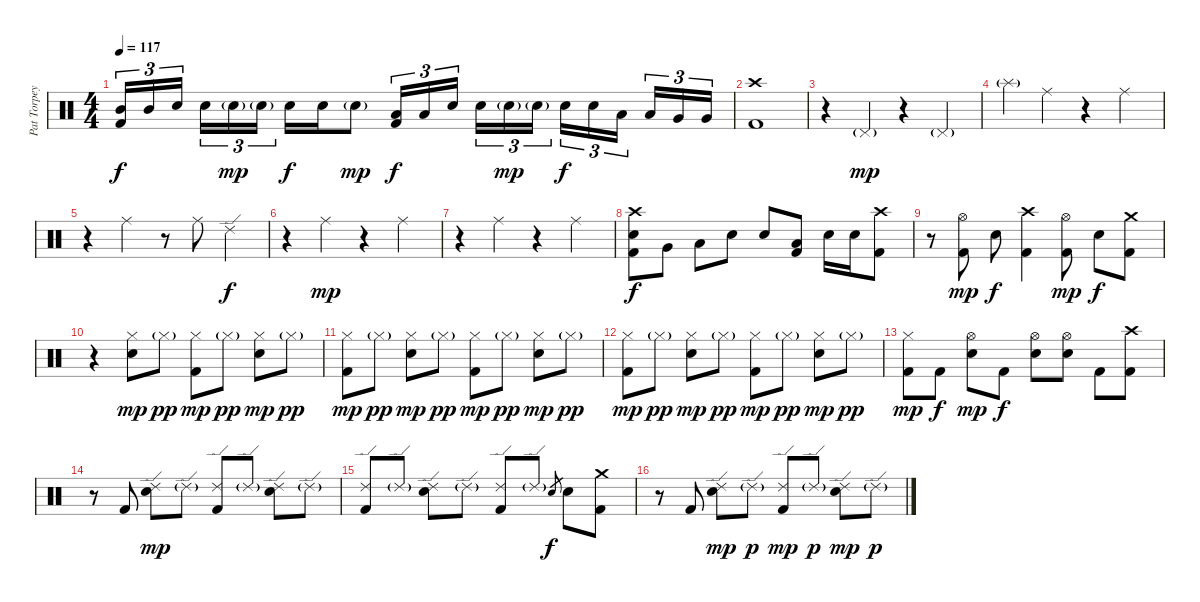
\track ("Pat Torpey" "Pat Torpey") {instrument percussion}
\staff {score}
\articulation defaults
\ts (4 4)
\tempo 117
\clef neutral
\ks c
("Mid Tom (hit)" "Kick (hit) 2").16{tu (3 2) dy f} "Mid Tom (hit)".16{tu (3 2)} "Electric Snare (hit)".16{tu (3 2) beam splitsecondary} "Electric Snare (hit)".16{tu (3 2)} "Electric Snare (hit)"{g}.16{tu (3 2) dy mp} "Electric Snare (hit)"{g}.16{tu (3 2)} "Electric Snare (hit)".16{dy f} "Electric Snare (hit)".16 "Electric Snare (hit)"{g}.8{dy mp} ("Low Tom (hit)" "Kick (hit) 2").16{tu (3 2) dy f} "Low Tom (hit)".16{tu (3 2)} "Electric Snare (hit)".16{tu (3 2) beam splitsecondary} "Electric Snare (hit)".16{tu (3 2)} "Electric Snare (hit)"{g}.16{tu (3 2) dy mp} "Electric Snare (hit)"{g}.16{tu (3 2)} "Electric Snare (hit)".16{tu (3 2) dy f} "Electric Snare (hit)".16{tu (3 2)} "Low Tom (hit)".16{tu (3 2) beam splitsecondary} "Low Tom (hit)".16{tu (3 2)} "Very Low Tom (hit)".16{tu (3 2)} "Very Low Tom (hit)".16{tu (3 2)} |
("Crash high (hit)" "Kick (hit) 2").1 |
r.4 "Pedal Hi-Hat (hit)"{g}.4{dy mp} r.4 "Pedal Hi-Hat (hit)"{g}.4 |
"Splash (hit)"{g}.4 "Ride (middle)".4 r.4 "Ride (middle)".4 |
r.4 "Ride (middle)".4 r.8 "Ride (middle)".8 "Ride (edge) 2".4{dy f} |
r.4 "Ride (middle)".4{dy mp} r.4 "Ride (middle)".4 |
r.4 "Ride (middle)".4 r.4 "Ride (middle)".4 |
("Crash high (hit)" "Electric Snare (hit)" "Kick (hit) 2").8{dy f} "Very Low Tom (hit)".8 "Low Floor Tom (hit)".8 "Electric Snare (hit)".8 "Electric Snare (hit)".8 ("Low Floor Tom (hit)" "Kick (hit) 2").8 "Electric Snare (hit)".16 "Electric Snare (hit)".16 ("Crash high (hit)" "Kick (hit) 2").8 |
r.8 ("Hi-Hat (open)" "Kick (hit) 2").8{dy mp} "Electric Snare (hit)".8{dy f} ("Crash high (hit)" "Kick (hit) 2").4 ("Hi-Hat (open)" "Kick (hit) 2").8{dy mp} "Electric Snare (hit)".8{dy f} ("Crash medium (hit)" "Kick (hit) 2").8 |
r.4 ("Hi-Hat (closed)" "Electric Snare (hit)").8{dy mp} "Hi-Hat (closed)"{g}.8{dy pp} ("Hi-Hat (closed)" "Kick (hit) 2").8{dy mp} "Hi-Hat (closed)"{g}.8{dy pp} ("Hi-Hat (closed)" "Electric Snare (hit)").8{dy mp} "Hi-Hat (closed)"{g}.8{dy pp} |
("Hi-Hat (closed)" "Kick (hit) 2").8{dy mp} "Hi-Hat (closed)"{g}.8{dy pp} ("Hi-Hat (closed)" "Electric Snare (hit)").8{dy mp} "Hi-Hat (closed)"{g}.8{dy pp} ("Hi-Hat (closed)" "Kick (hit) 2").8{dy mp} "Hi-Hat (closed)"{g}.8{dy pp} ("Hi-Hat (closed)" "Electric Snare (hit)").8{dy mp} "Hi-Hat (closed)"{g}.8{dy pp} |
("Hi-Hat (closed)" "Kick (hit) 2").8{dy mp} "Hi-Hat (closed)"{g}.8{dy pp} ("Hi-Hat (closed)" "Electric Snare (hit)").8{dy mp} "Hi-Hat (closed)"{g}.8{dy pp} ("Hi-Hat (closed)" "Kick (hit) 2").8{dy mp} "Hi-Hat (closed)"{g}.8{dy pp} ("Hi-Hat (closed)" "Electric Snare (hit)").8{dy mp} "Hi-Hat (closed)"{g}.8{dy pp} |
("Hi-Hat (closed)" "Kick (hit) 2").8{dy mp} "Kick (hit) 2".8{dy f} ("Hi-Hat (open)" "Electric Snare (hit)").8{dy mp} "Kick (hit) 2".8{dy f} ("Hi-Hat (open)" "Electric Snare (hit)").8 ("Hi-Hat (open)" "Electric Snare (hit)").8 "Kick (hit) 2".8 ("Crash high (hit)" "Kick (hit) 2").8 |
r.8 "Kick (hit) 2".8 ("Ride (edge) 2" "Electric Snare (hit)").8{dy mp} "Ride (edge) 2"{g}.8 ("Ride (edge) 2" "Kick (hit) 2").8 "Ride (edge) 2"{g}.8 ("Ride (edge) 2" "Electric Snare (hit)").8 "Ride (edge) 2"{g}.8 |
("Ride (edge) 2" "Kick (hit) 2").8 "Ride (edge) 2"{g}.8 ("Ride (edge) 2" "Electric Snare (hit)").8 "Ride (edge) 2"{g}.8 ("Ride (edge) 2" "Kick (hit) 2").8 "Ride (edge) 2"{g}.8 "Electric Snare (hit)"{h}.8{gr dy f} "Electric Snare (hit)".8 ("Crash medium (hit)" "Kick (hit) 2").8 |
r.8 "Kick (hit) 2".8 ("Ride (edge) 2" "Electric Snare (hit)").8{dy mp} "Ride (edge) 2"{g}.8{dy p} ("Ride (edge) 2" "Kick (hit) 2").8{dy mp} "Ride (edge) 2"{g}.8{dy p} ("Ride (edge) 2" "Electric Snare (hit)").8{dy mp} "Ride (edge) 2"{g}.8{dy p}
